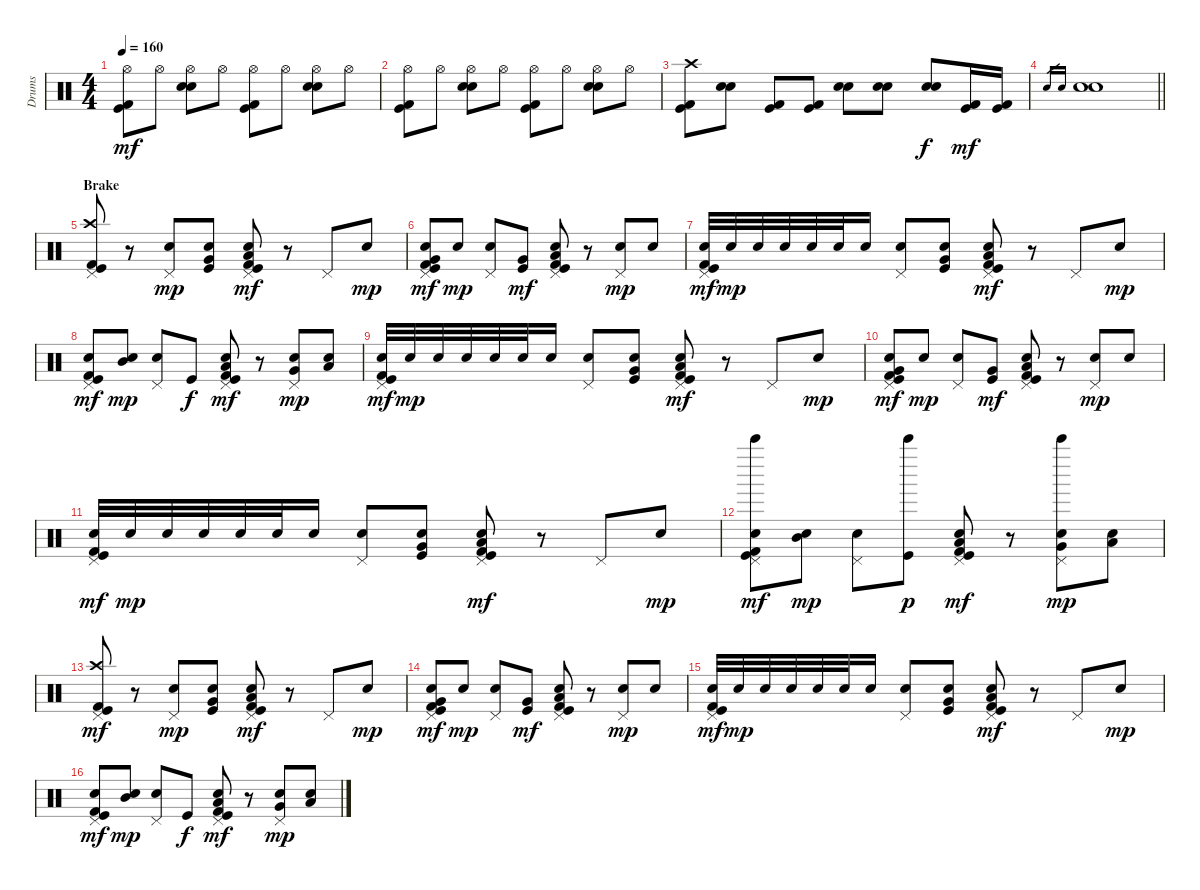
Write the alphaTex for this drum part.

\track ("Drums" "Drums") {instrument percussion}
\staff {score}
\articulation defaults
\ts (4 4)
\tempo 160
\clef neutral
\ks c
("Hi-Hat (open)" "Kick (hit) 2" "Kick (hit)").8{dy mf} "Hi-Hat (open)".8 ("Hi-Hat (open)" "Snare (hit) 2" "Electric Snare (hit)").8 "Hi-Hat (open)".8 ("Hi-Hat (open)" "Kick (hit) 2" "Kick (hit)").8 "Hi-Hat (open)".8 ("Hi-Hat (open)" "Snare (hit) 2" "Electric Snare (hit)").8 "Hi-Hat (open)".8 |
("Hi-Hat (open)" "Kick (hit) 2" "Kick (hit)").8 "Hi-Hat (open)".8 ("Hi-Hat (open)" "Snare (hit) 2" "Electric Snare (hit)").8 "Hi-Hat (open)".8 ("Hi-Hat (open)" "Kick (hit) 2" "Kick (hit)").8 "Hi-Hat (open)".8 ("Hi-Hat (open)" "Snare (hit) 2" "Electric Snare (hit)").8 "Hi-Hat (open)".8 |
("Crash high (hit)" "Kick (hit) 2" "Kick (hit)").8 ("Snare (hit) 2" "Electric Snare (hit)").8 ("Kick (hit) 2" "Kick (hit)").8 ("Kick (hit) 2" "Kick (hit)").8 ("Snare (hit) 2" "Electric Snare (hit)").8 ("Snare (hit) 2" "Electric Snare (hit)").8 ("Snare (hit) 2" "Electric Snare (hit)").8{dy f} ("Kick (hit) 2" "Kick (hit)").16{dy mf} ("Kick (hit) 2" "Kick (hit)").16 |
\barLineRight lightlight "Snare (hit) 2".16{gr} "Electric Snare (hit)".16{gr}
("Snare (hit) 2" "Electric Snare (hit)").1 |
\section ("" "Brake")
("Crash high (hit)" "Pedal Hi-Hat (hit)" "Kick (hit) 2" "Kick (hit)").8 r.8 ("Pedal Hi-Hat (hit)" "Electric Snare (hit)").8{dy mp} ("Very Low Tom (hit)" "Electric Snare (hit)" "Kick (hit)").8 ("Pedal Hi-Hat (hit)" "Low Tom (hit)" "Electric Snare (hit)" "Kick (hit) 2" "Kick (hit)").8{dy mf} r.8 "Pedal Hi-Hat (hit)".8 "Electric Snare (hit)".8{dy mp} |
("Pedal Hi-Hat (hit)" "Very Low Tom (hit)" "Electric Snare (hit)" "Kick (hit) 2" "Kick (hit)").8{dy mf} "Electric Snare (hit)".8{dy mp} ("Pedal Hi-Hat (hit)" "Electric Snare (hit)").8 ("Very Low Tom (hit)" "Kick (hit)").8{dy mf} ("Pedal Hi-Hat (hit)" "Low Tom (hit)" "Electric Snare (hit)" "Kick (hit) 2" "Kick (hit)").8 r.8 ("Pedal Hi-Hat (hit)" "Electric Snare (hit)").8{dy mp} "Electric Snare (hit)".8 |
("Pedal Hi-Hat (hit)" "Electric Snare (hit)" "Kick (hit) 2" "Kick (hit)").32{dy mf} "Electric Snare (hit)".32{dy mp} "Electric Snare (hit)".32 "Electric Snare (hit)".32 "Electric Snare (hit)".32 "Electric Snare (hit)".32 "Electric Snare (hit)".16 ("Pedal Hi-Hat (hit)" "Electric Snare (hit)").8 ("Very Low Tom (hit)" "Electric Snare (hit)" "Kick (hit)").8 ("Pedal Hi-Hat (hit)" "Low Tom (hit)" "Electric Snare (hit)" "Kick (hit) 2" "Kick (hit)").8{dy mf} r.8 "Pedal Hi-Hat (hit)".8 "Electric Snare (hit)".8{dy mp} |
("Pedal Hi-Hat (hit)" "Electric Snare (hit)" "Kick (hit) 2" "Kick (hit)").8{dy mf} ("Mid Tom (hit)" "Electric Snare (hit)").8{dy mp} ("Pedal Hi-Hat (hit)" "Electric Snare (hit)").8 "Kick (hit)".8{dy f} ("Pedal Hi-Hat (hit)" "Low Tom (hit)" "Electric Snare (hit)" "Kick (hit) 2" "Kick (hit)").8{dy mf} r.8 ("Pedal Hi-Hat (hit)" "Very Low Tom (hit)" "Electric Snare (hit)").8{dy mp} ("Low Floor Tom (hit)" "Electric Snare (hit)").8 |
("Pedal Hi-Hat (hit)" "Electric Snare (hit)" "Kick (hit) 2" "Kick (hit)").32{dy mf} "Electric Snare (hit)".32{dy mp} "Electric Snare (hit)".32 "Electric Snare (hit)".32 "Electric Snare (hit)".32 "Electric Snare (hit)".32 "Electric Snare (hit)".16 ("Pedal Hi-Hat (hit)" "Electric Snare (hit)").8 ("Very Low Tom (hit)" "Electric Snare (hit)" "Kick (hit)").8 ("Pedal Hi-Hat (hit)" "Low Tom (hit)" "Electric Snare (hit)" "Kick (hit) 2" "Kick (hit)").8{dy mf} r.8 "Pedal Hi-Hat (hit)".8 "Electric Snare (hit)".8{dy mp} |
("Pedal Hi-Hat (hit)" "Very Low Tom (hit)" "Electric Snare (hit)" "Kick (hit) 2" "Kick (hit)").8{dy mf} "Electric Snare (hit)".8{dy mp} ("Pedal Hi-Hat (hit)" "Electric Snare (hit)").8 ("Very Low Tom (hit)" "Kick (hit)").8{dy mf} ("Pedal Hi-Hat (hit)" "Low Tom (hit)" "Electric Snare (hit)" "Kick (hit) 2" "Kick (hit)").8 r.8 ("Pedal Hi-Hat (hit)" "Electric Snare (hit)").8{dy mp} "Electric Snare (hit)".8 |
("Pedal Hi-Hat (hit)" "Electric Snare (hit)" "Kick (hit) 2" "Kick (hit)").32{dy mf} "Electric Snare (hit)".32{dy mp} "Electric Snare (hit)".32 "Electric Snare (hit)".32 "Electric Snare (hit)".32 "Electric Snare (hit)".32 "Electric Snare (hit)".16 ("Pedal Hi-Hat (hit)" "Electric Snare (hit)").8 ("Very Low Tom (hit)" "Electric Snare (hit)" "Kick (hit)").8 ("Pedal Hi-Hat (hit)" "Low Tom (hit)" "Electric Snare (hit)" "Kick (hit) 2" "Kick (hit)").8{dy mf} r.8 "Pedal Hi-Hat (hit)".8 "Electric Snare (hit)".8{dy mp} |
("Bell Tree (hit)" "Pedal Hi-Hat (hit)" "Electric Snare (hit)" "Kick (hit) 2" "Kick (hit)").8{dy mf} ("Mid Tom (hit)" "Electric Snare (hit)").8{dy mp} ("Pedal Hi-Hat (hit)" "Electric Snare (hit)").8 ("Bell Tree (hit)" "Kick (hit)").8{dy p} ("Pedal Hi-Hat (hit)" "Low Tom (hit)" "Electric Snare (hit)" "Kick (hit) 2" "Kick (hit)").8{dy mf} r.8 ("Bell Tree (hit)" "Pedal Hi-Hat (hit)" "Very Low Tom (hit)" "Electric Snare (hit)").8{dy mp} ("Low Floor Tom (hit)" "Electric Snare (hit)").8 |
("Crash high (hit)" "Pedal Hi-Hat (hit)" "Kick (hit) 2" "Kick (hit)").8{dy mf} r.8 ("Pedal Hi-Hat (hit)" "Electric Snare (hit)").8{dy mp} ("Very Low Tom (hit)" "Electric Snare (hit)" "Kick (hit)").8 ("Pedal Hi-Hat (hit)" "Low Tom (hit)" "Electric Snare (hit)" "Kick (hit) 2" "Kick (hit)").8{dy mf} r.8 "Pedal Hi-Hat (hit)".8 "Electric Snare (hit)".8{dy mp} |
("Pedal Hi-Hat (hit)" "Very Low Tom (hit)" "Electric Snare (hit)" "Kick (hit) 2" "Kick (hit)").8{dy mf} "Electric Snare (hit)".8{dy mp} ("Pedal Hi-Hat (hit)" "Electric Snare (hit)").8 ("Very Low Tom (hit)" "Kick (hit)").8{dy mf} ("Pedal Hi-Hat (hit)" "Low Tom (hit)" "Electric Snare (hit)" "Kick (hit) 2" "Kick (hit)").8 r.8 ("Pedal Hi-Hat (hit)" "Electric Snare (hit)").8{dy mp} "Electric Snare (hit)".8 |
("Pedal Hi-Hat (hit)" "Electric Snare (hit)" "Kick (hit) 2" "Kick (hit)").32{dy mf} "Electric Snare (hit)".32{dy mp} "Electric Snare (hit)".32 "Electric Snare (hit)".32 "Electric Snare (hit)".32 "Electric Snare (hit)".32 "Electric Snare (hit)".16 ("Pedal Hi-Hat (hit)" "Electric Snare (hit)").8 ("Very Low Tom (hit)" "Electric Snare (hit)" "Kick (hit)").8 ("Pedal Hi-Hat (hit)" "Low Tom (hit)" "Electric Snare (hit)" "Kick (hit) 2" "Kick (hit)").8{dy mf} r.8 "Pedal Hi-Hat (hit)".8 "Electric Snare (hit)".8{dy mp} |
("Pedal Hi-Hat (hit)" "Electric Snare (hit)" "Kick (hit) 2" "Kick (hit)").8{dy mf} ("Mid Tom (hit)" "Electric Snare (hit)").8{dy mp} ("Pedal Hi-Hat (hit)" "Electric Snare (hit)").8 "Kick (hit)".8{dy f} ("Pedal Hi-Hat (hit)" "Low Tom (hit)" "Electric Snare (hit)" "Kick (hit) 2" "Kick (hit)").8{dy mf} r.8 ("Pedal Hi-Hat (hit)" "Very Low Tom (hit)" "Electric Snare (hit)").8{dy mp} ("Low Floor Tom (hit)" "Electric Snare (hit)").8
